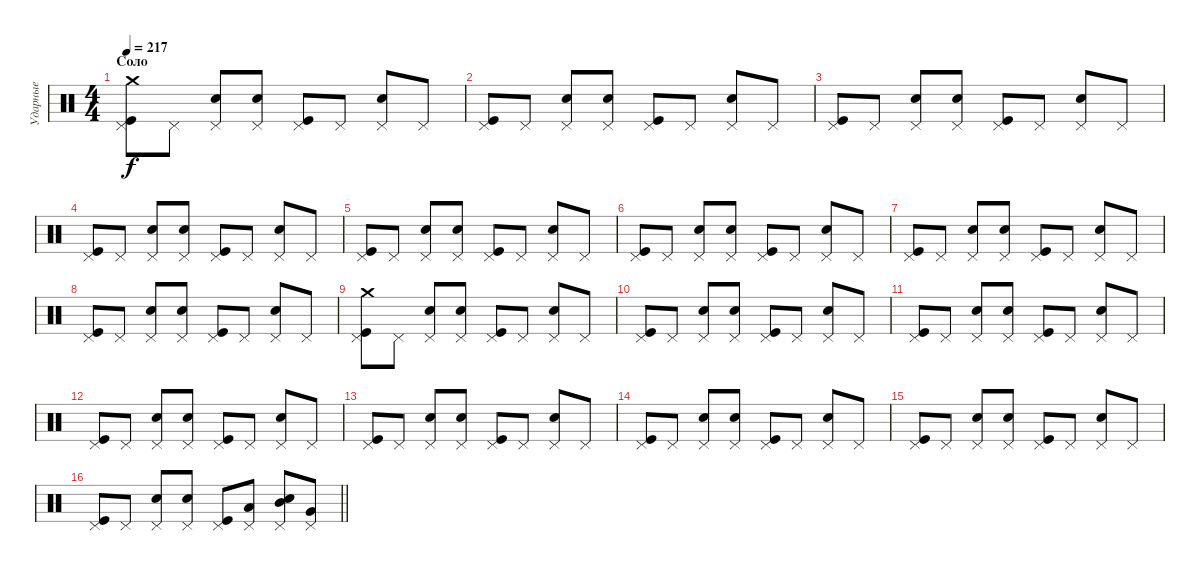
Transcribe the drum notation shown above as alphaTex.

\track ("Ударные" "Ударные") {instrument percussion}
\staff {score}
\articulation defaults
\ts (4 4)
\section ("" "Соло")
\tempo 217
\clef neutral
\ks c
("Pedal Hi-Hat (hit)" "Kick (hit)" "Crash medium (hit)").8{dy f} "Pedal Hi-Hat (hit)".8 ("Pedal Hi-Hat (hit)" "Snare (hit) 2").8 ("Pedal Hi-Hat (hit)" "Snare (hit) 2").8 ("Pedal Hi-Hat (hit)" "Kick (hit)").8 "Pedal Hi-Hat (hit)".8 ("Pedal Hi-Hat (hit)" "Snare (hit) 2").8 "Pedal Hi-Hat (hit)".8 |
("Pedal Hi-Hat (hit)" "Kick (hit)").8 "Pedal Hi-Hat (hit)".8 ("Pedal Hi-Hat (hit)" "Snare (hit) 2").8 ("Pedal Hi-Hat (hit)" "Snare (hit) 2").8 ("Pedal Hi-Hat (hit)" "Kick (hit)").8 "Pedal Hi-Hat (hit)".8 ("Pedal Hi-Hat (hit)" "Snare (hit) 2").8 "Pedal Hi-Hat (hit)".8 |
("Pedal Hi-Hat (hit)" "Kick (hit)").8 "Pedal Hi-Hat (hit)".8 ("Pedal Hi-Hat (hit)" "Snare (hit) 2").8 ("Pedal Hi-Hat (hit)" "Snare (hit) 2").8 ("Pedal Hi-Hat (hit)" "Kick (hit)").8 "Pedal Hi-Hat (hit)".8 ("Pedal Hi-Hat (hit)" "Snare (hit) 2").8 "Pedal Hi-Hat (hit)".8 |
("Pedal Hi-Hat (hit)" "Kick (hit)").8 "Pedal Hi-Hat (hit)".8 ("Pedal Hi-Hat (hit)" "Snare (hit) 2").8 ("Pedal Hi-Hat (hit)" "Snare (hit) 2").8 ("Pedal Hi-Hat (hit)" "Kick (hit)").8 "Pedal Hi-Hat (hit)".8 ("Pedal Hi-Hat (hit)" "Snare (hit) 2").8 "Pedal Hi-Hat (hit)".8 |
("Pedal Hi-Hat (hit)" "Kick (hit)").8 "Pedal Hi-Hat (hit)".8 ("Pedal Hi-Hat (hit)" "Snare (hit) 2").8 ("Pedal Hi-Hat (hit)" "Snare (hit) 2").8 ("Pedal Hi-Hat (hit)" "Kick (hit)").8 "Pedal Hi-Hat (hit)".8 ("Pedal Hi-Hat (hit)" "Snare (hit) 2").8 "Pedal Hi-Hat (hit)".8 |
("Pedal Hi-Hat (hit)" "Kick (hit)").8 "Pedal Hi-Hat (hit)".8 ("Pedal Hi-Hat (hit)" "Snare (hit) 2").8 ("Pedal Hi-Hat (hit)" "Snare (hit) 2").8 ("Pedal Hi-Hat (hit)" "Kick (hit)").8 "Pedal Hi-Hat (hit)".8 ("Pedal Hi-Hat (hit)" "Snare (hit) 2").8 "Pedal Hi-Hat (hit)".8 |
("Pedal Hi-Hat (hit)" "Kick (hit)").8 "Pedal Hi-Hat (hit)".8 ("Pedal Hi-Hat (hit)" "Snare (hit) 2").8 ("Pedal Hi-Hat (hit)" "Snare (hit) 2").8 ("Pedal Hi-Hat (hit)" "Kick (hit)").8 "Pedal Hi-Hat (hit)".8 ("Pedal Hi-Hat (hit)" "Snare (hit) 2").8 "Pedal Hi-Hat (hit)".8 |
("Pedal Hi-Hat (hit)" "Kick (hit)").8 "Pedal Hi-Hat (hit)".8 ("Pedal Hi-Hat (hit)" "Snare (hit) 2").8 ("Pedal Hi-Hat (hit)" "Snare (hit) 2").8 ("Pedal Hi-Hat (hit)" "Kick (hit)").8 "Pedal Hi-Hat (hit)".8 ("Pedal Hi-Hat (hit)" "Snare (hit) 2").8 "Pedal Hi-Hat (hit)".8 |
("Pedal Hi-Hat (hit)" "Kick (hit)" "Crash medium (hit)").8 "Pedal Hi-Hat (hit)".8 ("Pedal Hi-Hat (hit)" "Snare (hit) 2").8 ("Pedal Hi-Hat (hit)" "Snare (hit) 2").8 ("Pedal Hi-Hat (hit)" "Kick (hit)").8 "Pedal Hi-Hat (hit)".8 ("Pedal Hi-Hat (hit)" "Snare (hit) 2").8 "Pedal Hi-Hat (hit)".8 |
("Pedal Hi-Hat (hit)" "Kick (hit)").8 "Pedal Hi-Hat (hit)".8 ("Pedal Hi-Hat (hit)" "Snare (hit) 2").8 ("Pedal Hi-Hat (hit)" "Snare (hit) 2").8 ("Pedal Hi-Hat (hit)" "Kick (hit)").8 "Pedal Hi-Hat (hit)".8 ("Pedal Hi-Hat (hit)" "Snare (hit) 2").8 "Pedal Hi-Hat (hit)".8 |
("Pedal Hi-Hat (hit)" "Kick (hit)").8 "Pedal Hi-Hat (hit)".8 ("Pedal Hi-Hat (hit)" "Snare (hit) 2").8 ("Pedal Hi-Hat (hit)" "Snare (hit) 2").8 ("Pedal Hi-Hat (hit)" "Kick (hit)").8 "Pedal Hi-Hat (hit)".8 ("Pedal Hi-Hat (hit)" "Snare (hit) 2").8 "Pedal Hi-Hat (hit)".8 |
("Pedal Hi-Hat (hit)" "Kick (hit)").8 "Pedal Hi-Hat (hit)".8 ("Pedal Hi-Hat (hit)" "Snare (hit) 2").8 ("Pedal Hi-Hat (hit)" "Snare (hit) 2").8 ("Pedal Hi-Hat (hit)" "Kick (hit)").8 "Pedal Hi-Hat (hit)".8 ("Pedal Hi-Hat (hit)" "Snare (hit) 2").8 "Pedal Hi-Hat (hit)".8 |
("Pedal Hi-Hat (hit)" "Kick (hit)").8 "Pedal Hi-Hat (hit)".8 ("Pedal Hi-Hat (hit)" "Snare (hit) 2").8 ("Pedal Hi-Hat (hit)" "Snare (hit) 2").8 ("Pedal Hi-Hat (hit)" "Kick (hit)").8 "Pedal Hi-Hat (hit)".8 ("Pedal Hi-Hat (hit)" "Snare (hit) 2").8 "Pedal Hi-Hat (hit)".8 |
("Pedal Hi-Hat (hit)" "Kick (hit)").8 "Pedal Hi-Hat (hit)".8 ("Pedal Hi-Hat (hit)" "Snare (hit) 2").8 ("Pedal Hi-Hat (hit)" "Snare (hit) 2").8 ("Pedal Hi-Hat (hit)" "Kick (hit)").8 "Pedal Hi-Hat (hit)".8 ("Pedal Hi-Hat (hit)" "Snare (hit) 2").8 "Pedal Hi-Hat (hit)".8 |
("Pedal Hi-Hat (hit)" "Kick (hit)").8 "Pedal Hi-Hat (hit)".8 ("Pedal Hi-Hat (hit)" "Snare (hit) 2").8 ("Pedal Hi-Hat (hit)" "Snare (hit) 2").8 ("Pedal Hi-Hat (hit)" "Kick (hit)").8 "Pedal Hi-Hat (hit)".8 ("Pedal Hi-Hat (hit)" "Snare (hit) 2").8 "Pedal Hi-Hat (hit)".8 |
\barLineRight lightlight
("Pedal Hi-Hat (hit)" "Kick (hit)").8 "Pedal Hi-Hat (hit)".8 ("Pedal Hi-Hat (hit)" "Snare (hit) 2").8 ("Pedal Hi-Hat (hit)" "Snare (hit) 2").8 ("Pedal Hi-Hat (hit)" "Kick (hit)").8 ("Pedal Hi-Hat (hit)" "Low Tom (hit)").8 ("Pedal Hi-Hat (hit)" "Snare (hit) 2" "Mid Tom (hit)").8 ("Pedal Hi-Hat (hit)" "Very Low Tom (hit)").8
